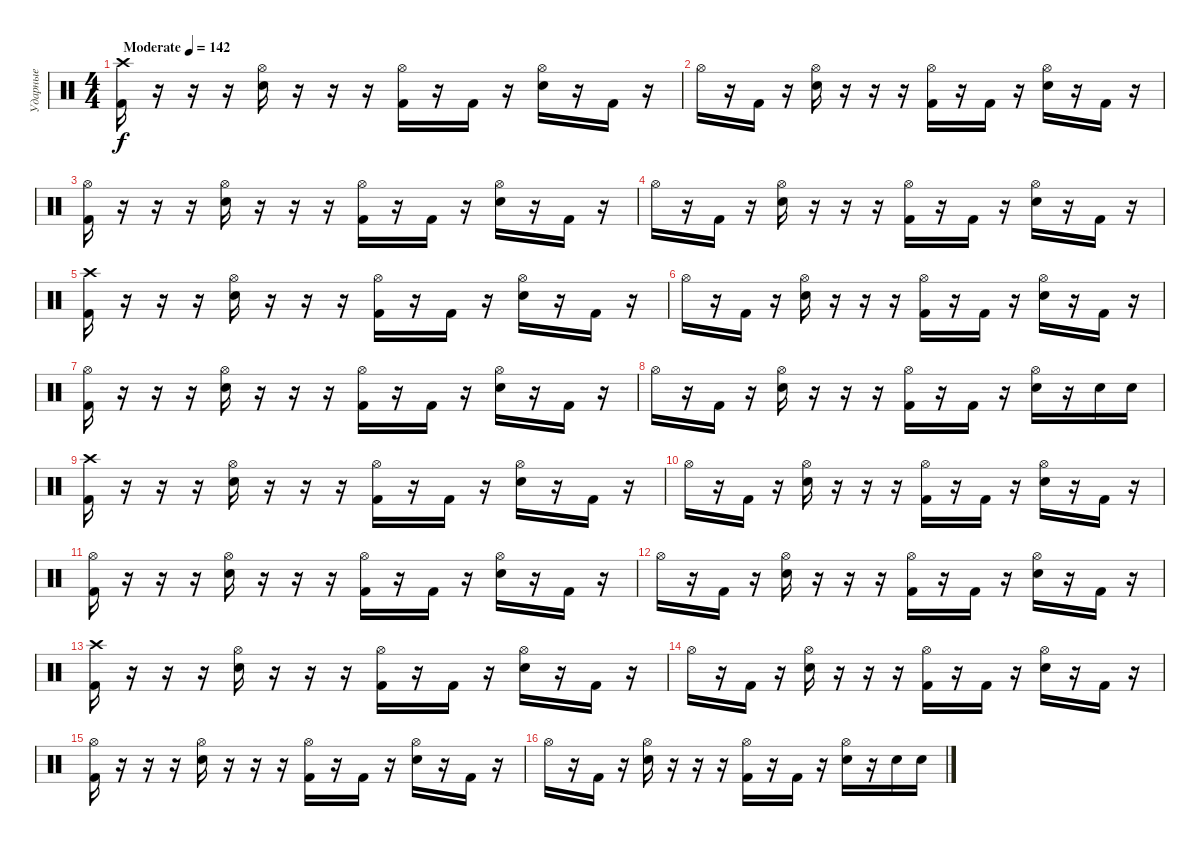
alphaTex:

\track ("Ударные" "Ударные") {instrument percussion}
\staff {score}
\articulation defaults
\ts (4 4)
\tempo (142 "Moderate")
\clef neutral
\ks c
("Crash high (hit)" "Kick (hit) 2").16{dy f} r.16 r.16 r.16 ("Hi-Hat (open)" "Electric Snare (hit)").16 r.16 r.16 r.16 ("Hi-Hat (open)" "Kick (hit) 2").16 r.16 "Kick (hit) 2".16 r.16 ("Hi-Hat (open)" "Electric Snare (hit)").16 r.16 "Kick (hit) 2".16 r.16 |
"Hi-Hat (open)".16 r.16 "Kick (hit) 2".16 r.16 ("Hi-Hat (open)" "Electric Snare (hit)").16 r.16 r.16 r.16 ("Hi-Hat (open)" "Kick (hit) 2").16 r.16 "Kick (hit) 2".16 r.16 ("Hi-Hat (open)" "Electric Snare (hit)").16 r.16 "Kick (hit) 2".16 r.16 |
("Hi-Hat (open)" "Kick (hit) 2").16 r.16 r.16 r.16 ("Hi-Hat (open)" "Electric Snare (hit)").16 r.16 r.16 r.16 ("Hi-Hat (open)" "Kick (hit) 2").16 r.16 "Kick (hit) 2".16 r.16 ("Hi-Hat (open)" "Electric Snare (hit)").16 r.16 "Kick (hit) 2".16 r.16 |
"Hi-Hat (open)".16 r.16 "Kick (hit) 2".16 r.16 ("Hi-Hat (open)" "Electric Snare (hit)").16 r.16 r.16 r.16 ("Hi-Hat (open)" "Kick (hit) 2").16 r.16 "Kick (hit) 2".16 r.16 ("Hi-Hat (open)" "Electric Snare (hit)").16 r.16 "Kick (hit) 2".16 r.16 |
("Crash high (hit)" "Kick (hit) 2").16 r.16 r.16 r.16 ("Hi-Hat (open)" "Electric Snare (hit)").16 r.16 r.16 r.16 ("Hi-Hat (open)" "Kick (hit) 2").16 r.16 "Kick (hit) 2".16 r.16 ("Hi-Hat (open)" "Electric Snare (hit)").16 r.16 "Kick (hit) 2".16 r.16 |
"Hi-Hat (open)".16 r.16 "Kick (hit) 2".16 r.16 ("Hi-Hat (open)" "Electric Snare (hit)").16 r.16 r.16 r.16 ("Hi-Hat (open)" "Kick (hit) 2").16 r.16 "Kick (hit) 2".16 r.16 ("Hi-Hat (open)" "Electric Snare (hit)").16 r.16 "Kick (hit) 2".16 r.16 |
("Hi-Hat (open)" "Kick (hit) 2").16 r.16 r.16 r.16 ("Hi-Hat (open)" "Electric Snare (hit)").16 r.16 r.16 r.16 ("Hi-Hat (open)" "Kick (hit) 2").16 r.16 "Kick (hit) 2".16 r.16 ("Hi-Hat (open)" "Electric Snare (hit)").16 r.16 "Kick (hit) 2".16 r.16 |
"Hi-Hat (open)".16 r.16 "Kick (hit) 2".16 r.16 ("Hi-Hat (open)" "Electric Snare (hit)").16 r.16 r.16 r.16 ("Hi-Hat (open)" "Kick (hit) 2").16 r.16 "Kick (hit) 2".16 r.16 ("Hi-Hat (open)" "Electric Snare (hit)").16 r.16 "Electric Snare (hit)".16 "Electric Snare (hit)".16 |
("Crash high (hit)" "Kick (hit) 2").16 r.16 r.16 r.16 ("Hi-Hat (open)" "Electric Snare (hit)").16 r.16 r.16 r.16 ("Hi-Hat (open)" "Kick (hit) 2").16 r.16 "Kick (hit) 2".16 r.16 ("Hi-Hat (open)" "Electric Snare (hit)").16 r.16 "Kick (hit) 2".16 r.16 |
"Hi-Hat (open)".16 r.16 "Kick (hit) 2".16 r.16 ("Hi-Hat (open)" "Electric Snare (hit)").16 r.16 r.16 r.16 ("Hi-Hat (open)" "Kick (hit) 2").16 r.16 "Kick (hit) 2".16 r.16 ("Hi-Hat (open)" "Electric Snare (hit)").16 r.16 "Kick (hit) 2".16 r.16 |
("Hi-Hat (open)" "Kick (hit) 2").16 r.16 r.16 r.16 ("Hi-Hat (open)" "Electric Snare (hit)").16 r.16 r.16 r.16 ("Hi-Hat (open)" "Kick (hit) 2").16 r.16 "Kick (hit) 2".16 r.16 ("Hi-Hat (open)" "Electric Snare (hit)").16 r.16 "Kick (hit) 2".16 r.16 |
"Hi-Hat (open)".16 r.16 "Kick (hit) 2".16 r.16 ("Hi-Hat (open)" "Electric Snare (hit)").16 r.16 r.16 r.16 ("Hi-Hat (open)" "Kick (hit) 2").16 r.16 "Kick (hit) 2".16 r.16 ("Hi-Hat (open)" "Electric Snare (hit)").16 r.16 "Kick (hit) 2".16 r.16 |
("Crash high (hit)" "Kick (hit) 2").16 r.16 r.16 r.16 ("Hi-Hat (open)" "Electric Snare (hit)").16 r.16 r.16 r.16 ("Hi-Hat (open)" "Kick (hit) 2").16 r.16 "Kick (hit) 2".16 r.16 ("Hi-Hat (open)" "Electric Snare (hit)").16 r.16 "Kick (hit) 2".16 r.16 |
"Hi-Hat (open)".16 r.16 "Kick (hit) 2".16 r.16 ("Hi-Hat (open)" "Electric Snare (hit)").16 r.16 r.16 r.16 ("Hi-Hat (open)" "Kick (hit) 2").16 r.16 "Kick (hit) 2".16 r.16 ("Hi-Hat (open)" "Electric Snare (hit)").16 r.16 "Kick (hit) 2".16 r.16 |
("Hi-Hat (open)" "Kick (hit) 2").16 r.16 r.16 r.16 ("Hi-Hat (open)" "Electric Snare (hit)").16 r.16 r.16 r.16 ("Hi-Hat (open)" "Kick (hit) 2").16 r.16 "Kick (hit) 2".16 r.16 ("Hi-Hat (open)" "Electric Snare (hit)").16 r.16 "Kick (hit) 2".16 r.16 |
"Hi-Hat (open)".16 r.16 "Kick (hit) 2".16 r.16 ("Hi-Hat (open)" "Electric Snare (hit)").16 r.16 r.16 r.16 ("Hi-Hat (open)" "Kick (hit) 2").16 r.16 "Kick (hit) 2".16 r.16 ("Hi-Hat (open)" "Electric Snare (hit)").16 r.16 "Electric Snare (hit)".16 "Electric Snare (hit)".16
